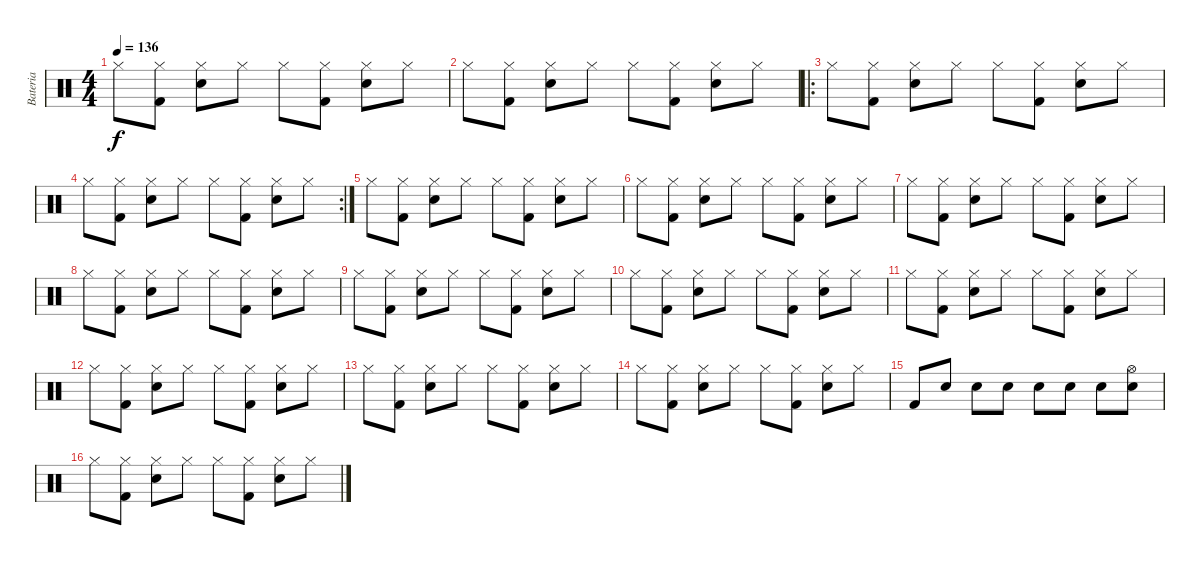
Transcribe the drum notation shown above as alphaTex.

\track ("Bateria" "Bateria") {instrument percussion}
\staff {score}
\articulation defaults
\ts (4 4)
\tempo 136
\clef neutral
\ks c "Hi-Hat (closed)".8{dy f}
("Kick (hit) 2" "Hi-Hat (closed)").8 ("Snare (hit) 2" "Hi-Hat (closed)").8 "Hi-Hat (closed)".8 "Hi-Hat (closed)".8 ("Kick (hit) 2" "Hi-Hat (closed)").8 ("Hi-Hat (closed)" "Snare (hit) 2").8 "Hi-Hat (closed)".8 |
"Hi-Hat (closed)".8 ("Kick (hit) 2" "Hi-Hat (closed)").8 ("Snare (hit) 2" "Hi-Hat (closed)").8 "Hi-Hat (closed)".8 "Hi-Hat (closed)".8 ("Kick (hit) 2" "Hi-Hat (closed)").8 ("Hi-Hat (closed)" "Snare (hit) 2").8 "Hi-Hat (closed)".8 |
\ro "Hi-Hat (closed)".8
("Kick (hit) 2" "Hi-Hat (closed)").8 ("Snare (hit) 2" "Hi-Hat (closed)").8 "Hi-Hat (closed)".8 "Hi-Hat (closed)".8 ("Kick (hit) 2" "Hi-Hat (closed)").8 ("Hi-Hat (closed)" "Snare (hit) 2").8 "Hi-Hat (closed)".8 |
\rc 2 "Hi-Hat (closed)".8
("Kick (hit) 2" "Hi-Hat (closed)").8 ("Snare (hit) 2" "Hi-Hat (closed)").8 "Hi-Hat (closed)".8 "Hi-Hat (closed)".8 ("Kick (hit) 2" "Hi-Hat (closed)").8 ("Hi-Hat (closed)" "Snare (hit) 2").8 "Hi-Hat (closed)".8 |
"Hi-Hat (closed)".8 ("Kick (hit) 2" "Hi-Hat (closed)").8 ("Snare (hit) 2" "Hi-Hat (closed)").8 "Hi-Hat (closed)".8 "Hi-Hat (closed)".8 ("Kick (hit) 2" "Hi-Hat (closed)").8 ("Hi-Hat (closed)" "Snare (hit) 2").8 "Hi-Hat (closed)".8 |
"Hi-Hat (closed)".8 ("Kick (hit) 2" "Hi-Hat (closed)").8 ("Snare (hit) 2" "Hi-Hat (closed)").8 "Hi-Hat (closed)".8 "Hi-Hat (closed)".8 ("Kick (hit) 2" "Hi-Hat (closed)").8 ("Hi-Hat (closed)" "Snare (hit) 2").8 "Hi-Hat (closed)".8 |
"Hi-Hat (closed)".8 ("Kick (hit) 2" "Hi-Hat (closed)").8 ("Snare (hit) 2" "Hi-Hat (closed)").8 "Hi-Hat (closed)".8 "Hi-Hat (closed)".8 ("Kick (hit) 2" "Hi-Hat (closed)").8 ("Hi-Hat (closed)" "Snare (hit) 2").8 "Hi-Hat (closed)".8 |
"Hi-Hat (closed)".8 ("Kick (hit) 2" "Hi-Hat (closed)").8 ("Snare (hit) 2" "Hi-Hat (closed)").8 "Hi-Hat (closed)".8 "Hi-Hat (closed)".8 ("Kick (hit) 2" "Hi-Hat (closed)").8 ("Hi-Hat (closed)" "Snare (hit) 2").8 "Hi-Hat (closed)".8 |
"Hi-Hat (closed)".8 ("Kick (hit) 2" "Hi-Hat (closed)").8 ("Snare (hit) 2" "Hi-Hat (closed)").8 "Hi-Hat (closed)".8 "Hi-Hat (closed)".8 ("Kick (hit) 2" "Hi-Hat (closed)").8 ("Hi-Hat (closed)" "Snare (hit) 2").8 "Hi-Hat (closed)".8 |
"Hi-Hat (closed)".8 ("Kick (hit) 2" "Hi-Hat (closed)").8 ("Snare (hit) 2" "Hi-Hat (closed)").8 "Hi-Hat (closed)".8 "Hi-Hat (closed)".8 ("Kick (hit) 2" "Hi-Hat (closed)").8 ("Hi-Hat (closed)" "Snare (hit) 2").8 "Hi-Hat (closed)".8 |
"Hi-Hat (closed)".8 ("Kick (hit) 2" "Hi-Hat (closed)").8 ("Snare (hit) 2" "Hi-Hat (closed)").8 "Hi-Hat (closed)".8 "Hi-Hat (closed)".8 ("Kick (hit) 2" "Hi-Hat (closed)").8 ("Hi-Hat (closed)" "Snare (hit) 2").8 "Hi-Hat (closed)".8 |
"Hi-Hat (closed)".8 ("Kick (hit) 2" "Hi-Hat (closed)").8 ("Snare (hit) 2" "Hi-Hat (closed)").8 "Hi-Hat (closed)".8 "Hi-Hat (closed)".8 ("Kick (hit) 2" "Hi-Hat (closed)").8 ("Hi-Hat (closed)" "Snare (hit) 2").8 "Hi-Hat (closed)".8 |
"Hi-Hat (closed)".8 ("Kick (hit) 2" "Hi-Hat (closed)").8 ("Snare (hit) 2" "Hi-Hat (closed)").8 "Hi-Hat (closed)".8 "Hi-Hat (closed)".8 ("Kick (hit) 2" "Hi-Hat (closed)").8 ("Hi-Hat (closed)" "Snare (hit) 2").8 "Hi-Hat (closed)".8 |
"Hi-Hat (closed)".8 ("Kick (hit) 2" "Hi-Hat (closed)").8 ("Snare (hit) 2" "Hi-Hat (closed)").8 "Hi-Hat (closed)".8 "Hi-Hat (closed)".8 ("Kick (hit) 2" "Hi-Hat (closed)").8 ("Hi-Hat (closed)" "Snare (hit) 2").8 "Hi-Hat (closed)".8 |
"Kick (hit) 2".8 "Snare (hit) 2".8 "Snare (hit) 2".8 "Snare (hit) 2".8 "Snare (hit) 2".8 "Snare (hit) 2".8 "Snare (hit) 2".8 ("Hi-Hat (open)" "Snare (hit) 2").8 |
"Hi-Hat (closed)".8 ("Kick (hit) 2" "Hi-Hat (closed)").8 ("Snare (hit) 2" "Hi-Hat (closed)").8 "Hi-Hat (closed)".8 "Hi-Hat (closed)".8 ("Kick (hit) 2" "Hi-Hat (closed)").8 ("Hi-Hat (closed)" "Snare (hit) 2").8 "Hi-Hat (closed)".8
